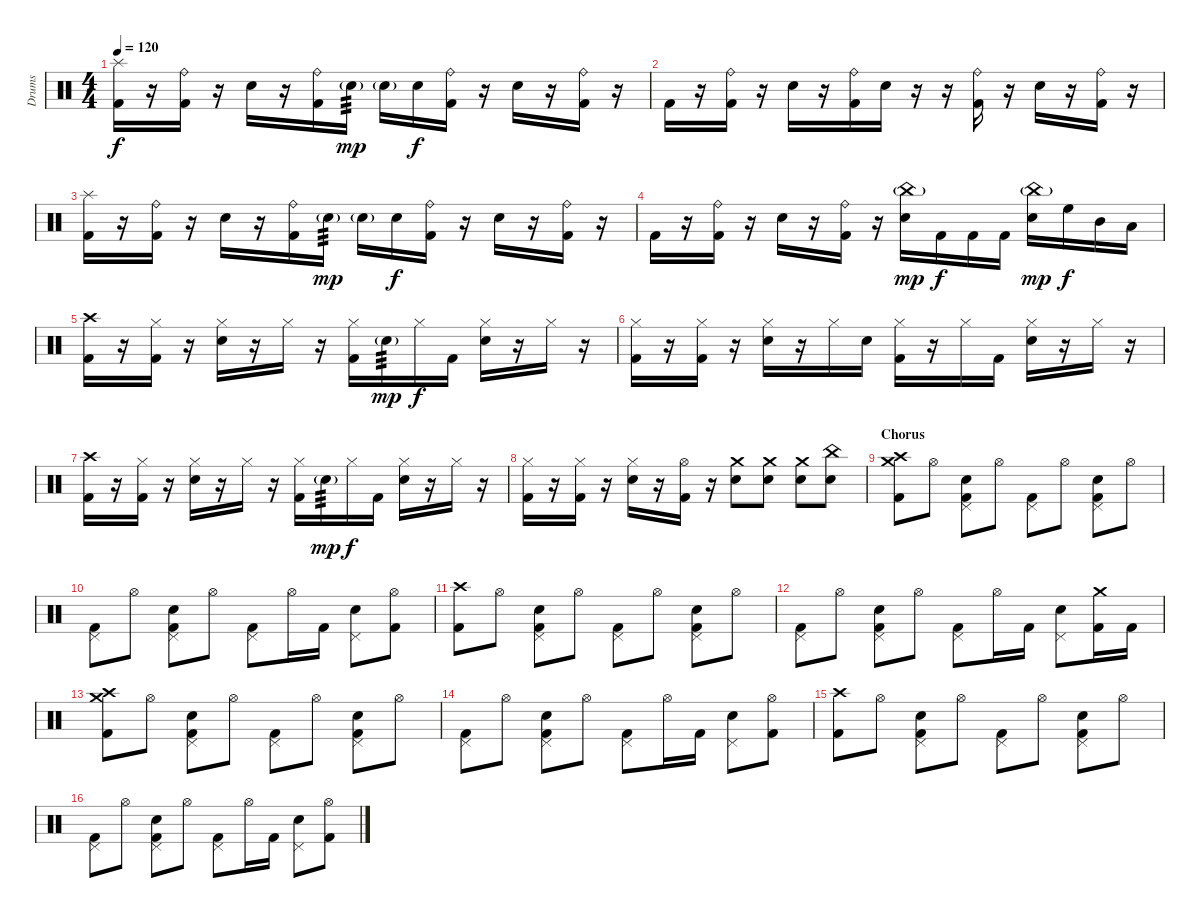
\track ("Drums" "Drums") {instrument percussion}
\staff {score}
\articulation defaults
\ts (4 4)
\tempo 120
\clef neutral
\ks c
("Splash (hit)" "Kick (hit) 2").16{dy f} r.16 ("Ride (bell)" "Kick (hit) 2").16 r.16 "Electric Snare (hit)".16 r.16 ("Ride (bell)" "Kick (hit) 2").16 "Electric Snare (hit)"{g}.16{tp 3 dy mp} "Electric Snare (hit)"{g}.16 "Electric Snare (hit)".16{dy f} ("Ride (bell)" "Kick (hit) 2").16 r.16 "Electric Snare (hit)".16 r.16 ("Ride (bell)" "Kick (hit) 2").16 r.16 |
"Kick (hit) 2".16 r.16 ("Ride (bell)" "Kick (hit) 2").16 r.16 "Electric Snare (hit)".16 r.16 ("Ride (bell)" "Kick (hit) 2").16 "Electric Snare (hit)".16 r.16 r.16 ("Ride (bell)" "Kick (hit) 2").16 r.16 "Electric Snare (hit)".16 r.16 ("Ride (bell)" "Kick (hit) 2").16 r.16 |
("Splash (hit)" "Kick (hit) 2").16 r.16 ("Ride (bell)" "Kick (hit) 2").16 r.16 "Electric Snare (hit)".16 r.16 ("Ride (bell)" "Kick (hit) 2").16 "Electric Snare (hit)"{g}.16{tp 3 dy mp} "Electric Snare (hit)"{g}.16 "Electric Snare (hit)".16{dy f} ("Ride (bell)" "Kick (hit) 2").16 r.16 "Electric Snare (hit)".16 r.16 ("Ride (bell)" "Kick (hit) 2").16 r.16 |
"Kick (hit) 2".16 r.16 ("Ride (bell)" "Kick (hit) 2").16 r.16 "Electric Snare (hit)".16 r.16 ("Ride (bell)" "Kick (hit) 2").16 r.16 ("China (hit)"{g} "Electric Snare (hit)").16{dy mp} "Kick (hit) 2".16{dy f} "Kick (hit) 2".16 "Kick (hit) 2".16 ("China (hit)"{g} "Electric Snare (hit)").16{dy mp} "High Floor Tom (hit)".16{dy f} "Mid Tom (hit)".16 "Low Tom (hit)".16 |
("Crash high (hit)" "Kick (hit) 2").16 r.16 ("Hi-Hat (closed)" "Kick (hit) 2").16 r.16 ("Hi-Hat (closed)" "Electric Snare (hit)").16 r.16 "Hi-Hat (closed)".16 r.16 ("Hi-Hat (closed)" "Kick (hit) 2").16 "Electric Snare (hit)"{g}.16{tp 3 dy mp} "Hi-Hat (closed)".16{dy f} "Kick (hit) 2".16 ("Hi-Hat (closed)" "Electric Snare (hit)").16 r.16 "Hi-Hat (closed)".16 r.16 |
("Hi-Hat (closed)" "Kick (hit) 2").16 r.16 ("Hi-Hat (closed)" "Kick (hit) 2").16 r.16 ("Hi-Hat (closed)" "Electric Snare (hit)").16 r.16 "Hi-Hat (closed)".16 "Electric Snare (hit)".16 ("Hi-Hat (closed)" "Kick (hit) 2").16 r.16 "Hi-Hat (closed)".16 "Kick (hit) 2".16 ("Hi-Hat (closed)" "Electric Snare (hit)").16 r.16 "Hi-Hat (closed)".16 r.16 |
("Crash high (hit)" "Kick (hit) 2").16 r.16 ("Hi-Hat (closed)" "Kick (hit) 2").16 r.16 ("Hi-Hat (closed)" "Electric Snare (hit)").16 r.16 "Hi-Hat (closed)".16 r.16 ("Hi-Hat (closed)" "Kick (hit) 2").16 "Electric Snare (hit)"{g}.16{tp 3 dy mp} "Hi-Hat (closed)".16{dy f} "Kick (hit) 2".16 ("Hi-Hat (closed)" "Electric Snare (hit)").16 r.16 "Hi-Hat (closed)".16 r.16 |
("Hi-Hat (closed)" "Kick (hit) 2").16 r.16 ("Hi-Hat (closed)" "Kick (hit) 2").16 r.16 ("Hi-Hat (closed)" "Electric Snare (hit)").16 r.16 ("Hi-Hat (open)" "Kick (hit) 2").16 r.16 ("Crash medium (hit)" "Electric Snare (hit)").8 ("Crash medium (hit)" "Electric Snare (hit)").8 ("Crash medium (hit)" "Electric Snare (hit)").8 ("China (hit)" "Electric Snare (hit)").8 |
\section ("" "Chorus")
("Crash high (hit)" "Crash medium (hit)" "Kick (hit) 2").8 "Hi-Hat (open)".8 ("Pedal Hi-Hat (hit)" "Electric Snare (hit)" "Kick (hit) 2").8 "Hi-Hat (open)".8 ("Pedal Hi-Hat (hit)" "Kick (hit) 2").8 "Hi-Hat (open)".8 ("Pedal Hi-Hat (hit)" "Electric Snare (hit)" "Kick (hit) 2").8 "Hi-Hat (open)".8 |
("Pedal Hi-Hat (hit)" "Kick (hit) 2").8 "Hi-Hat (open)".8 ("Pedal Hi-Hat (hit)" "Electric Snare (hit)" "Kick (hit) 2").8 "Hi-Hat (open)".8 ("Pedal Hi-Hat (hit)" "Kick (hit) 2").8 "Hi-Hat (open)".16 "Kick (hit) 2".16 ("Pedal Hi-Hat (hit)" "Electric Snare (hit)").8 ("Hi-Hat (open)" "Kick (hit) 2").8 |
("Crash high (hit)" "Kick (hit) 2").8 "Hi-Hat (open)".8 ("Pedal Hi-Hat (hit)" "Electric Snare (hit)" "Kick (hit) 2").8 "Hi-Hat (open)".8 ("Pedal Hi-Hat (hit)" "Kick (hit) 2").8 "Hi-Hat (open)".8 ("Pedal Hi-Hat (hit)" "Electric Snare (hit)" "Kick (hit) 2").8 "Hi-Hat (open)".8 |
("Pedal Hi-Hat (hit)" "Kick (hit) 2").8 "Hi-Hat (open)".8 ("Pedal Hi-Hat (hit)" "Electric Snare (hit)" "Kick (hit) 2").8 "Hi-Hat (open)".8 ("Pedal Hi-Hat (hit)" "Kick (hit) 2").8 "Hi-Hat (open)".16 "Kick (hit) 2".16 ("Pedal Hi-Hat (hit)" "Electric Snare (hit)").8 ("Crash medium (hit)" "Kick (hit) 2").16 "Kick (hit) 2".16 |
("Crash high (hit)" "Crash medium (hit)" "Kick (hit) 2").8 "Hi-Hat (open)".8 ("Pedal Hi-Hat (hit)" "Electric Snare (hit)" "Kick (hit) 2").8 "Hi-Hat (open)".8 ("Pedal Hi-Hat (hit)" "Kick (hit) 2").8 "Hi-Hat (open)".8 ("Pedal Hi-Hat (hit)" "Electric Snare (hit)" "Kick (hit) 2").8 "Hi-Hat (open)".8 |
("Pedal Hi-Hat (hit)" "Kick (hit) 2").8 "Hi-Hat (open)".8 ("Pedal Hi-Hat (hit)" "Electric Snare (hit)" "Kick (hit) 2").8 "Hi-Hat (open)".8 ("Pedal Hi-Hat (hit)" "Kick (hit) 2").8 "Hi-Hat (open)".16 "Kick (hit) 2".16 ("Pedal Hi-Hat (hit)" "Electric Snare (hit)").8 ("Hi-Hat (open)" "Kick (hit) 2").8 |
("Crash high (hit)" "Kick (hit) 2").8 "Hi-Hat (open)".8 ("Pedal Hi-Hat (hit)" "Electric Snare (hit)" "Kick (hit) 2").8 "Hi-Hat (open)".8 ("Pedal Hi-Hat (hit)" "Kick (hit) 2").8 "Hi-Hat (open)".8 ("Pedal Hi-Hat (hit)" "Electric Snare (hit)" "Kick (hit) 2").8 "Hi-Hat (open)".8 |
("Pedal Hi-Hat (hit)" "Kick (hit) 2").8 "Hi-Hat (open)".8 ("Pedal Hi-Hat (hit)" "Electric Snare (hit)" "Kick (hit) 2").8 "Hi-Hat (open)".8 ("Pedal Hi-Hat (hit)" "Kick (hit) 2").8 "Hi-Hat (open)".16 "Kick (hit) 2".16 ("Pedal Hi-Hat (hit)" "Electric Snare (hit)").8 ("Hi-Hat (open)" "Kick (hit) 2").8
